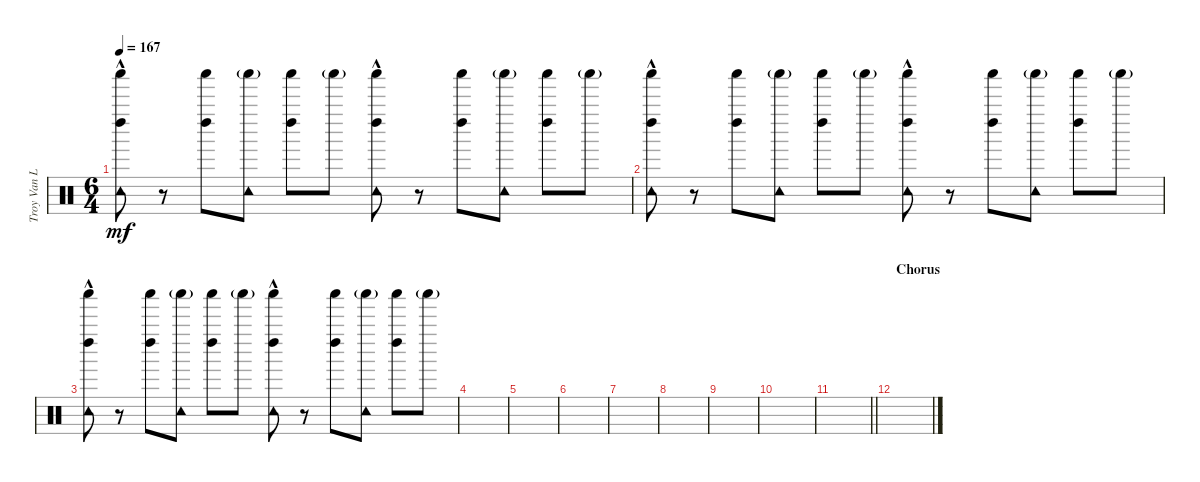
\track ("Troy Van Leeuwen (live)" "Troy Van L") {instrument percussion}
\staff {score}
\articulation defaults
\ts (6 4)
\tempo 167
\clef neutral
\ks c
("Tambourine (hit)" "Left Maraca (hit)" "Shaker (hit)"{hac}).8{dy mf} r.8 ("Left Maraca (hit)" "Shaker (hit)").8 ("Tambourine (hit)" "Shaker (hit)"{g}).8 ("Left Maraca (hit)" "Shaker (hit)").8 "Shaker (hit)"{g}.8 ("Tambourine (hit)" "Left Maraca (hit)" "Shaker (hit)"{hac}).8 r.8 ("Left Maraca (hit)" "Shaker (hit)").8 ("Tambourine (hit)" "Shaker (hit)"{g}).8 ("Left Maraca (hit)" "Shaker (hit)").8 "Shaker (hit)"{g}.8 |
("Tambourine (hit)" "Left Maraca (hit)" "Shaker (hit)"{hac}).8 r.8 ("Left Maraca (hit)" "Shaker (hit)").8 ("Tambourine (hit)" "Shaker (hit)"{g}).8 ("Left Maraca (hit)" "Shaker (hit)").8 "Shaker (hit)"{g}.8 ("Tambourine (hit)" "Left Maraca (hit)" "Shaker (hit)"{hac}).8 r.8 ("Left Maraca (hit)" "Shaker (hit)").8 ("Tambourine (hit)" "Shaker (hit)"{g}).8 ("Left Maraca (hit)" "Shaker (hit)").8 "Shaker (hit)"{g}.8 |
("Tambourine (hit)" "Left Maraca (hit)" "Shaker (hit)"{hac}).8 r.8 ("Left Maraca (hit)" "Shaker (hit)").8 ("Tambourine (hit)" "Shaker (hit)"{g}).8 ("Left Maraca (hit)" "Shaker (hit)").8 "Shaker (hit)"{g}.8 ("Tambourine (hit)" "Left Maraca (hit)" "Shaker (hit)"{hac}).8 r.8 ("Left Maraca (hit)" "Shaker (hit)").8 ("Tambourine (hit)" "Shaker (hit)"{g}).8 ("Left Maraca (hit)" "Shaker (hit)").8 "Shaker (hit)"{g}.8 |
|
|
|
|
|
|
|
\barLineRight lightlight
|
\section ("" "Chorus")
